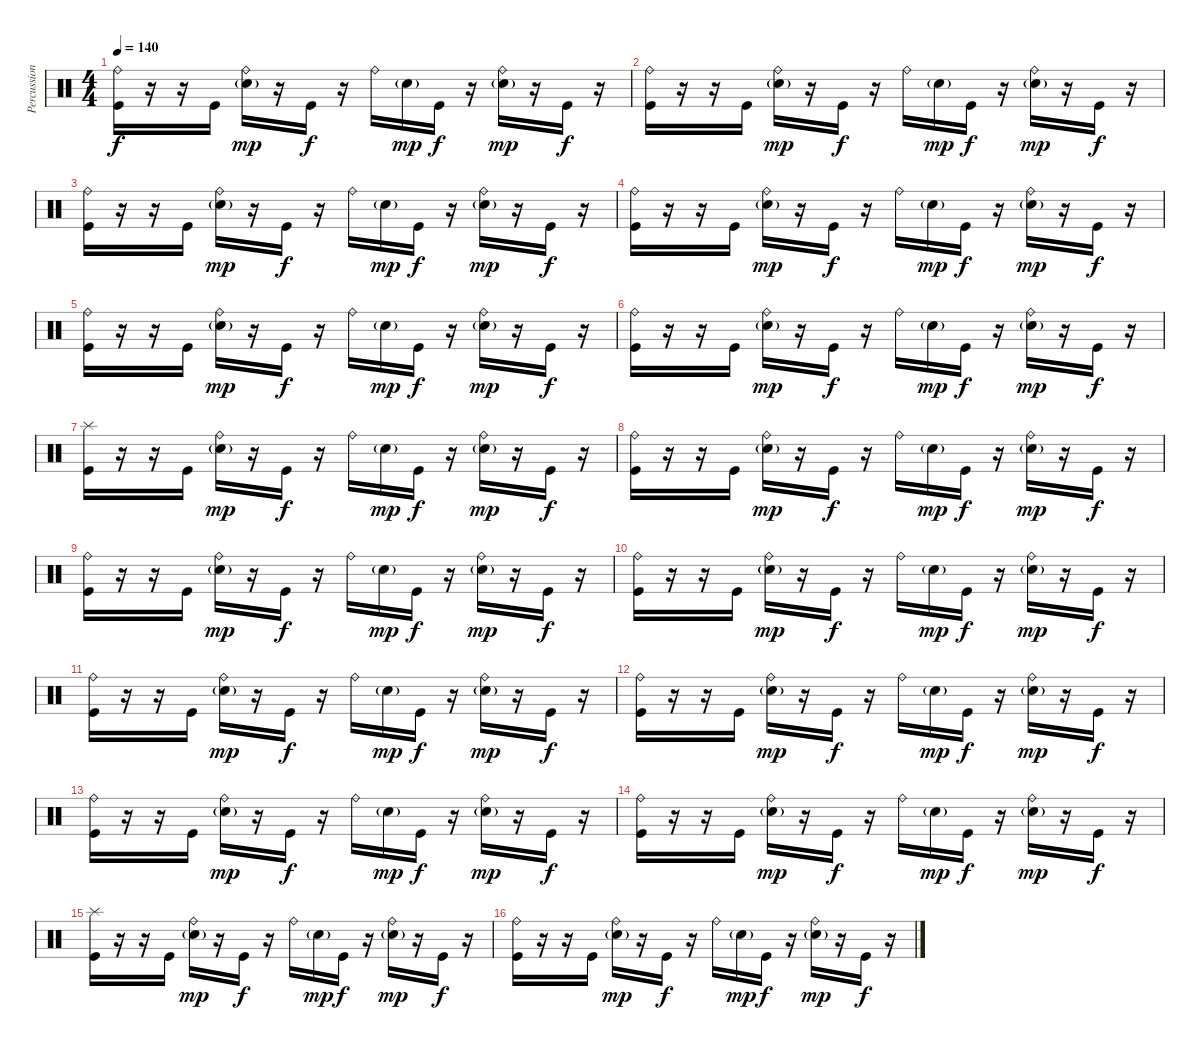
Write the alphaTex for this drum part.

\track ("Percussion" "Percussion") {instrument percussion}
\staff {score}
\articulation defaults
\ts (4 4)
\tempo 140
\clef neutral
\ks c
("Ride (bell)" "Kick (hit)").16{dy f} r.16 r.16 "Kick (hit)".16 ("Ride (bell)" "Electric Snare (hit)"{g}).16{dy mp} r.16 "Kick (hit)".16{dy f} r.16 "Ride (bell)".16 "Electric Snare (hit)"{g}.16{dy mp} "Kick (hit)".16{dy f} r.16 ("Ride (bell)" "Electric Snare (hit)"{g}).16{dy mp} r.16 "Kick (hit)".16{dy f} r.16 |
("Ride (bell)" "Kick (hit)").16 r.16 r.16 "Kick (hit)".16 ("Ride (bell)" "Electric Snare (hit)"{g}).16{dy mp} r.16 "Kick (hit)".16{dy f} r.16 "Ride (bell)".16 "Electric Snare (hit)"{g}.16{dy mp} "Kick (hit)".16{dy f} r.16 ("Ride (bell)" "Electric Snare (hit)"{g}).16{dy mp} r.16 "Kick (hit)".16{dy f} r.16 |
("Ride (bell)" "Kick (hit)").16 r.16 r.16 "Kick (hit)".16 ("Ride (bell)" "Electric Snare (hit)"{g}).16{dy mp} r.16 "Kick (hit)".16{dy f} r.16 "Ride (bell)".16 "Electric Snare (hit)"{g}.16{dy mp} "Kick (hit)".16{dy f} r.16 ("Ride (bell)" "Electric Snare (hit)"{g}).16{dy mp} r.16 "Kick (hit)".16{dy f} r.16 |
("Ride (bell)" "Kick (hit)").16 r.16 r.16 "Kick (hit)".16 ("Ride (bell)" "Electric Snare (hit)"{g}).16{dy mp} r.16 "Kick (hit)".16{dy f} r.16 "Ride (bell)".16 "Electric Snare (hit)"{g}.16{dy mp} "Kick (hit)".16{dy f} r.16 ("Ride (bell)" "Electric Snare (hit)"{g}).16{dy mp} r.16 "Kick (hit)".16{dy f} r.16 |
("Ride (bell)" "Kick (hit)").16 r.16 r.16 "Kick (hit)".16 ("Ride (bell)" "Electric Snare (hit)"{g}).16{dy mp} r.16 "Kick (hit)".16{dy f} r.16 "Ride (bell)".16 "Electric Snare (hit)"{g}.16{dy mp} "Kick (hit)".16{dy f} r.16 ("Ride (bell)" "Electric Snare (hit)"{g}).16{dy mp} r.16 "Kick (hit)".16{dy f} r.16 |
("Ride (bell)" "Kick (hit)").16 r.16 r.16 "Kick (hit)".16 ("Ride (bell)" "Electric Snare (hit)"{g}).16{dy mp} r.16 "Kick (hit)".16{dy f} r.16 "Ride (bell)".16 "Electric Snare (hit)"{g}.16{dy mp} "Kick (hit)".16{dy f} r.16 ("Ride (bell)" "Electric Snare (hit)"{g}).16{dy mp} r.16 "Kick (hit)".16{dy f} r.16 |
("Splash (hit)" "Kick (hit)").16 r.16 r.16 "Kick (hit)".16 ("Ride (bell)" "Electric Snare (hit)"{g}).16{dy mp} r.16 "Kick (hit)".16{dy f} r.16 "Ride (bell)".16 "Electric Snare (hit)"{g}.16{dy mp} "Kick (hit)".16{dy f} r.16 ("Ride (bell)" "Electric Snare (hit)"{g}).16{dy mp} r.16 "Kick (hit)".16{dy f} r.16 |
("Ride (bell)" "Kick (hit)").16 r.16 r.16 "Kick (hit)".16 ("Ride (bell)" "Electric Snare (hit)"{g}).16{dy mp} r.16 "Kick (hit)".16{dy f} r.16 "Ride (bell)".16 "Electric Snare (hit)"{g}.16{dy mp} "Kick (hit)".16{dy f} r.16 ("Ride (bell)" "Electric Snare (hit)"{g}).16{dy mp} r.16 "Kick (hit)".16{dy f} r.16 |
("Ride (bell)" "Kick (hit)").16 r.16 r.16 "Kick (hit)".16 ("Ride (bell)" "Electric Snare (hit)"{g}).16{dy mp} r.16 "Kick (hit)".16{dy f} r.16 "Ride (bell)".16 "Electric Snare (hit)"{g}.16{dy mp} "Kick (hit)".16{dy f} r.16 ("Ride (bell)" "Electric Snare (hit)"{g}).16{dy mp} r.16 "Kick (hit)".16{dy f} r.16 |
("Ride (bell)" "Kick (hit)").16 r.16 r.16 "Kick (hit)".16 ("Ride (bell)" "Electric Snare (hit)"{g}).16{dy mp} r.16 "Kick (hit)".16{dy f} r.16 "Ride (bell)".16 "Electric Snare (hit)"{g}.16{dy mp} "Kick (hit)".16{dy f} r.16 ("Ride (bell)" "Electric Snare (hit)"{g}).16{dy mp} r.16 "Kick (hit)".16{dy f} r.16 |
("Ride (bell)" "Kick (hit)").16 r.16 r.16 "Kick (hit)".16 ("Ride (bell)" "Electric Snare (hit)"{g}).16{dy mp} r.16 "Kick (hit)".16{dy f} r.16 "Ride (bell)".16 "Electric Snare (hit)"{g}.16{dy mp} "Kick (hit)".16{dy f} r.16 ("Ride (bell)" "Electric Snare (hit)"{g}).16{dy mp} r.16 "Kick (hit)".16{dy f} r.16 |
("Ride (bell)" "Kick (hit)").16 r.16 r.16 "Kick (hit)".16 ("Ride (bell)" "Electric Snare (hit)"{g}).16{dy mp} r.16 "Kick (hit)".16{dy f} r.16 "Ride (bell)".16 "Electric Snare (hit)"{g}.16{dy mp} "Kick (hit)".16{dy f} r.16 ("Ride (bell)" "Electric Snare (hit)"{g}).16{dy mp} r.16 "Kick (hit)".16{dy f} r.16 |
("Ride (bell)" "Kick (hit)").16 r.16 r.16 "Kick (hit)".16 ("Ride (bell)" "Electric Snare (hit)"{g}).16{dy mp} r.16 "Kick (hit)".16{dy f} r.16 "Ride (bell)".16 "Electric Snare (hit)"{g}.16{dy mp} "Kick (hit)".16{dy f} r.16 ("Ride (bell)" "Electric Snare (hit)"{g}).16{dy mp} r.16 "Kick (hit)".16{dy f} r.16 |
("Ride (bell)" "Kick (hit)").16 r.16 r.16 "Kick (hit)".16 ("Ride (bell)" "Electric Snare (hit)"{g}).16{dy mp} r.16 "Kick (hit)".16{dy f} r.16 "Ride (bell)".16 "Electric Snare (hit)"{g}.16{dy mp} "Kick (hit)".16{dy f} r.16 ("Ride (bell)" "Electric Snare (hit)"{g}).16{dy mp} r.16 "Kick (hit)".16{dy f} r.16 |
("Splash (hit)" "Kick (hit)").16 r.16 r.16 "Kick (hit)".16 ("Ride (bell)" "Electric Snare (hit)"{g}).16{dy mp} r.16 "Kick (hit)".16{dy f} r.16 "Ride (bell)".16 "Electric Snare (hit)"{g}.16{dy mp} "Kick (hit)".16{dy f} r.16 ("Ride (bell)" "Electric Snare (hit)"{g}).16{dy mp} r.16 "Kick (hit)".16{dy f} r.16 |
("Ride (bell)" "Kick (hit)").16 r.16 r.16 "Kick (hit)".16 ("Ride (bell)" "Electric Snare (hit)"{g}).16{dy mp} r.16 "Kick (hit)".16{dy f} r.16 "Ride (bell)".16 "Electric Snare (hit)"{g}.16{dy mp} "Kick (hit)".16{dy f} r.16 ("Ride (bell)" "Electric Snare (hit)"{g}).16{dy mp} r.16 "Kick (hit)".16{dy f} r.16
